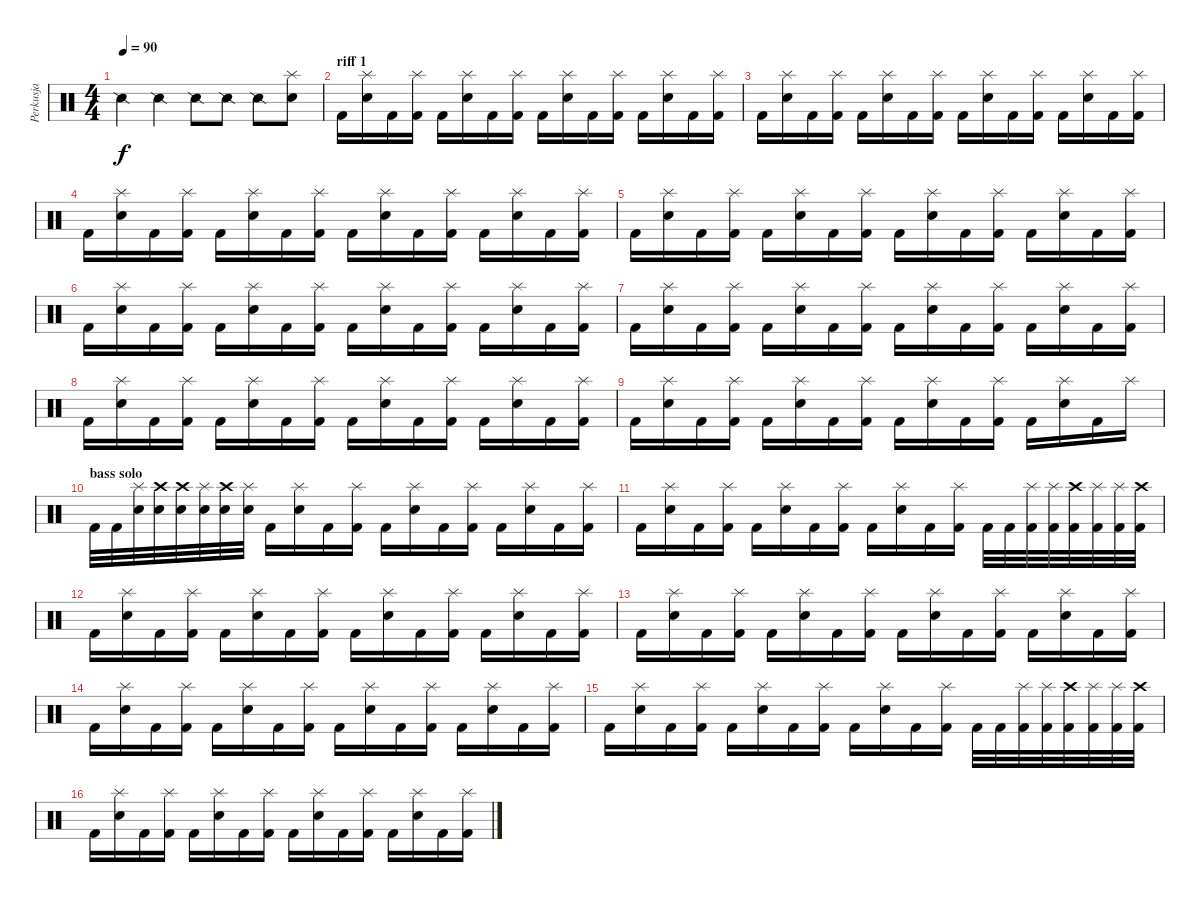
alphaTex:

\track ("Perkusja" "Perkusja") {instrument percussion}
\staff {score}
\articulation defaults
\ts (4 4)
\tempo 90
\clef neutral
\ks c "Snare (side stick) 2".4{dy f} "Snare (side stick) 2".4 "Snare (side stick) 2".8 "Snare (side stick) 2".8 "Snare (side stick) 2".8
("Splash (hit)" "Snare (hit) 2").8 |
\section ("" "riff 1")
"Kick (hit) 2".16 ("Splash (hit)" "Snare (hit) 2").16 "Kick (hit) 2".16 ("Splash (hit)" "Kick (hit) 2").16 "Kick (hit) 2".16 ("Splash (hit)" "Snare (hit) 2").16 "Kick (hit) 2".16 ("Splash (hit)" "Kick (hit) 2").16 "Kick (hit) 2".16 ("Splash (hit)" "Snare (hit) 2").16 "Kick (hit) 2".16 ("Splash (hit)" "Kick (hit) 2").16 "Kick (hit) 2".16 ("Splash (hit)" "Snare (hit) 2").16 "Kick (hit) 2".16 ("Splash (hit)" "Kick (hit) 2").16 |
"Kick (hit) 2".16 ("Splash (hit)" "Snare (hit) 2").16 "Kick (hit) 2".16 ("Splash (hit)" "Kick (hit) 2").16 "Kick (hit) 2".16 ("Splash (hit)" "Snare (hit) 2").16 "Kick (hit) 2".16 ("Splash (hit)" "Kick (hit) 2").16 "Kick (hit) 2".16 ("Splash (hit)" "Snare (hit) 2").16 "Kick (hit) 2".16 ("Splash (hit)" "Kick (hit) 2").16 "Kick (hit) 2".16 ("Splash (hit)" "Snare (hit) 2").16 "Kick (hit) 2".16 ("Splash (hit)" "Kick (hit) 2").16 |
"Kick (hit) 2".16 ("Splash (hit)" "Snare (hit) 2").16 "Kick (hit) 2".16 ("Splash (hit)" "Kick (hit) 2").16 "Kick (hit) 2".16 ("Splash (hit)" "Snare (hit) 2").16 "Kick (hit) 2".16 ("Splash (hit)" "Kick (hit) 2").16 "Kick (hit) 2".16 ("Splash (hit)" "Snare (hit) 2").16 "Kick (hit) 2".16 ("Splash (hit)" "Kick (hit) 2").16 "Kick (hit) 2".16 ("Splash (hit)" "Snare (hit) 2").16 "Kick (hit) 2".16 ("Splash (hit)" "Kick (hit) 2").16 |
"Kick (hit) 2".16 ("Splash (hit)" "Snare (hit) 2").16 "Kick (hit) 2".16 ("Splash (hit)" "Kick (hit) 2").16 "Kick (hit) 2".16 ("Splash (hit)" "Snare (hit) 2").16 "Kick (hit) 2".16 ("Splash (hit)" "Kick (hit) 2").16 "Kick (hit) 2".16 ("Splash (hit)" "Snare (hit) 2").16 "Kick (hit) 2".16 ("Splash (hit)" "Kick (hit) 2").16 "Kick (hit) 2".16 ("Splash (hit)" "Snare (hit) 2").16 "Kick (hit) 2".16 ("Splash (hit)" "Kick (hit) 2").16 |
"Kick (hit) 2".16 ("Splash (hit)" "Snare (hit) 2").16 "Kick (hit) 2".16 ("Splash (hit)" "Kick (hit) 2").16 "Kick (hit) 2".16 ("Splash (hit)" "Snare (hit) 2").16 "Kick (hit) 2".16 ("Splash (hit)" "Kick (hit) 2").16 "Kick (hit) 2".16 ("Splash (hit)" "Snare (hit) 2").16 "Kick (hit) 2".16 ("Splash (hit)" "Kick (hit) 2").16 "Kick (hit) 2".16 ("Splash (hit)" "Snare (hit) 2").16 "Kick (hit) 2".16 ("Splash (hit)" "Kick (hit) 2").16 |
"Kick (hit) 2".16 ("Splash (hit)" "Snare (hit) 2").16 "Kick (hit) 2".16 ("Splash (hit)" "Kick (hit) 2").16 "Kick (hit) 2".16 ("Splash (hit)" "Snare (hit) 2").16 "Kick (hit) 2".16 ("Splash (hit)" "Kick (hit) 2").16 "Kick (hit) 2".16 ("Splash (hit)" "Snare (hit) 2").16 "Kick (hit) 2".16 ("Splash (hit)" "Kick (hit) 2").16 "Kick (hit) 2".16 ("Splash (hit)" "Snare (hit) 2").16 "Kick (hit) 2".16 ("Splash (hit)" "Kick (hit) 2").16 |
"Kick (hit) 2".16 ("Splash (hit)" "Snare (hit) 2").16 "Kick (hit) 2".16 ("Splash (hit)" "Kick (hit) 2").16 "Kick (hit) 2".16 ("Splash (hit)" "Snare (hit) 2").16 "Kick (hit) 2".16 ("Splash (hit)" "Kick (hit) 2").16 "Kick (hit) 2".16 ("Splash (hit)" "Snare (hit) 2").16 "Kick (hit) 2".16 ("Splash (hit)" "Kick (hit) 2").16 "Kick (hit) 2".16 ("Splash (hit)" "Snare (hit) 2").16 "Kick (hit) 2".16 ("Splash (hit)" "Kick (hit) 2").16 |
"Kick (hit) 2".16 ("Splash (hit)" "Snare (hit) 2").16 "Kick (hit) 2".16 ("Splash (hit)" "Kick (hit) 2").16 "Kick (hit) 2".16 ("Splash (hit)" "Snare (hit) 2").16 "Kick (hit) 2".16 ("Splash (hit)" "Kick (hit) 2").16 "Kick (hit) 2".16 ("Splash (hit)" "Snare (hit) 2").16 "Kick (hit) 2".16 ("Splash (hit)" "Kick (hit) 2").16 "Kick (hit) 2".16 ("Splash (hit)" "Snare (hit) 2").16 "Kick (hit) 2".16 "Splash (hit)".16 |
\section ("" "bass solo")
"Kick (hit) 2".32{volume 8} "Kick (hit) 2".32 ("Splash (hit)" "Electric Snare (hit)").32 ("Crash high (hit)" "Electric Snare (hit)").32 ("Crash high (hit)" "Electric Snare (hit)").32 ("Splash (hit)" "Electric Snare (hit)").32 ("Crash high (hit)" "Electric Snare (hit)").32 ("Splash (hit)" "Electric Snare (hit)").32 "Kick (hit) 2".16 ("Splash (hit)" "Snare (hit) 2").16{volume 12} "Kick (hit) 2".16 ("Splash (hit)" "Kick (hit) 2").16 "Kick (hit) 2".16 ("Splash (hit)" "Snare (hit) 2").16 "Kick (hit) 2".16 ("Splash (hit)" "Kick (hit) 2").16 "Kick (hit) 2".16 ("Splash (hit)" "Snare (hit) 2").16 "Kick (hit) 2".16 ("Splash (hit)" "Kick (hit) 2").16 |
"Kick (hit) 2".16 ("Splash (hit)" "Snare (hit) 2").16 "Kick (hit) 2".16 ("Splash (hit)" "Kick (hit) 2").16 "Kick (hit) 2".16 ("Splash (hit)" "Snare (hit) 2").16 "Kick (hit) 2".16 ("Splash (hit)" "Kick (hit) 2").16 "Kick (hit) 2".16 ("Splash (hit)" "Snare (hit) 2").16 "Kick (hit) 2".16 ("Splash (hit)" "Kick (hit) 2").16 "Kick (hit) 2".32 "Kick (hit) 2".32 ("Splash (hit)" "Kick (hit) 2").32 ("Splash (hit)" "Kick (hit) 2").32 ("Crash high (hit)" "Kick (hit) 2").32 ("Splash (hit)" "Kick (hit) 2").32 ("Splash (hit)" "Kick (hit) 2").32 ("Crash high (hit)" "Kick (hit) 2").32 |
"Kick (hit) 2".16 ("Splash (hit)" "Snare (hit) 2").16 "Kick (hit) 2".16 ("Splash (hit)" "Kick (hit) 2").16 "Kick (hit) 2".16 ("Splash (hit)" "Snare (hit) 2").16 "Kick (hit) 2".16 ("Splash (hit)" "Kick (hit) 2").16 "Kick (hit) 2".16 ("Splash (hit)" "Snare (hit) 2").16 "Kick (hit) 2".16 ("Splash (hit)" "Kick (hit) 2").16 "Kick (hit) 2".16 ("Splash (hit)" "Snare (hit) 2").16 "Kick (hit) 2".16 ("Splash (hit)" "Kick (hit) 2").16 |
"Kick (hit) 2".16 ("Splash (hit)" "Snare (hit) 2").16 "Kick (hit) 2".16 ("Splash (hit)" "Kick (hit) 2").16 "Kick (hit) 2".16 ("Splash (hit)" "Snare (hit) 2").16 "Kick (hit) 2".16 ("Splash (hit)" "Kick (hit) 2").16 "Kick (hit) 2".16 ("Splash (hit)" "Snare (hit) 2").16 "Kick (hit) 2".16 ("Splash (hit)" "Kick (hit) 2").16 "Kick (hit) 2".16 ("Splash (hit)" "Snare (hit) 2").16 "Kick (hit) 2".16 ("Splash (hit)" "Kick (hit) 2").16 |
"Kick (hit) 2".16 ("Splash (hit)" "Snare (hit) 2").16 "Kick (hit) 2".16 ("Splash (hit)" "Kick (hit) 2").16 "Kick (hit) 2".16 ("Splash (hit)" "Snare (hit) 2").16 "Kick (hit) 2".16 ("Splash (hit)" "Kick (hit) 2").16 "Kick (hit) 2".16 ("Splash (hit)" "Snare (hit) 2").16 "Kick (hit) 2".16 ("Splash (hit)" "Kick (hit) 2").16 "Kick (hit) 2".16 ("Splash (hit)" "Snare (hit) 2").16 "Kick (hit) 2".16 ("Splash (hit)" "Kick (hit) 2").16 |
"Kick (hit) 2".16 ("Splash (hit)" "Snare (hit) 2").16 "Kick (hit) 2".16 ("Splash (hit)" "Kick (hit) 2").16 "Kick (hit) 2".16 ("Splash (hit)" "Snare (hit) 2").16 "Kick (hit) 2".16 ("Splash (hit)" "Kick (hit) 2").16 "Kick (hit) 2".16 ("Splash (hit)" "Snare (hit) 2").16 "Kick (hit) 2".16 ("Splash (hit)" "Kick (hit) 2").16 "Kick (hit) 2".32 "Kick (hit) 2".32 ("Splash (hit)" "Kick (hit) 2").32 ("Splash (hit)" "Kick (hit) 2").32 ("Crash high (hit)" "Kick (hit) 2").32 ("Splash (hit)" "Kick (hit) 2").32 ("Splash (hit)" "Kick (hit) 2").32 ("Crash high (hit)" "Kick (hit) 2").32 |
"Kick (hit) 2".16 ("Splash (hit)" "Snare (hit) 2").16 "Kick (hit) 2".16 ("Splash (hit)" "Kick (hit) 2").16 "Kick (hit) 2".16 ("Splash (hit)" "Snare (hit) 2").16 "Kick (hit) 2".16 ("Splash (hit)" "Kick (hit) 2").16 "Kick (hit) 2".16 ("Splash (hit)" "Snare (hit) 2").16 "Kick (hit) 2".16 ("Splash (hit)" "Kick (hit) 2").16 "Kick (hit) 2".16 ("Splash (hit)" "Snare (hit) 2").16 "Kick (hit) 2".16 ("Splash (hit)" "Kick (hit) 2").16
